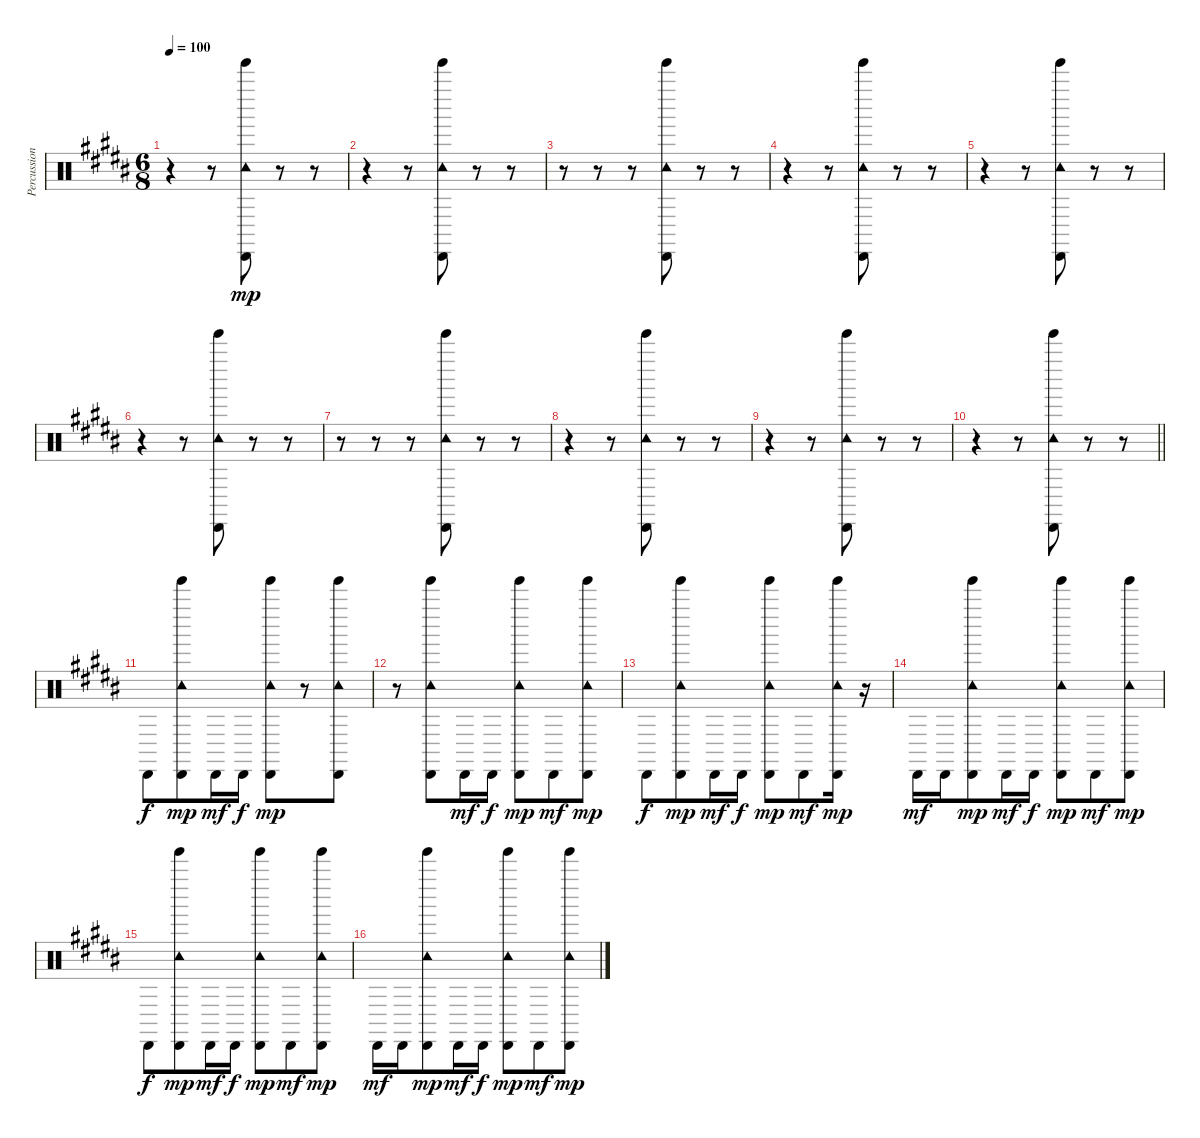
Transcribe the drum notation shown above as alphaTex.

\track ("Percussion" "Percussion") {instrument percussion}
\staff {score}
\articulation defaults
\ts (6 8)
\tempo 100
\clef neutral
\ks b
r.4{dy mp} r.8 ("Tambourine (hit)" "Cabasa (hit)" "Tinkle Bell (hit)").8 r.8 r.8 |
r.4 r.8 ("Tambourine (hit)" "Cabasa (hit)" "Tinkle Bell (hit)").8 r.8 r.8 |
r.8 r.8 r.8 ("Tambourine (hit)" "Cabasa (hit)" "Tinkle Bell (hit)").8 r.8 r.8 |
r.4 r.8 ("Tambourine (hit)" "Cabasa (hit)" "Tinkle Bell (hit)").8 r.8 r.8 |
r.4 r.8 ("Tambourine (hit)" "Cabasa (hit)" "Tinkle Bell (hit)").8 r.8 r.8 |
r.4 r.8 ("Tambourine (hit)" "Cabasa (hit)" "Tinkle Bell (hit)").8 r.8 r.8 |
r.8 r.8 r.8 ("Tambourine (hit)" "Cabasa (hit)" "Tinkle Bell (hit)").8 r.8 r.8 |
r.4 r.8 ("Tambourine (hit)" "Cabasa (hit)" "Tinkle Bell (hit)").8 r.8 r.8 |
r.4 r.8 ("Tambourine (hit)" "Cabasa (hit)" "Tinkle Bell (hit)").8 r.8 r.8 |
\barLineRight lightlight
r.4 r.8 ("Tambourine (hit)" "Cabasa (hit)" "Tinkle Bell (hit)").8 r.8 r.8 |
"Cabasa (hit)".8{dy f} ("Tinkle Bell (hit)" "Tambourine (hit)" "Cabasa (hit)").8{dy mp} "Cabasa (hit)".16{dy mf} "Cabasa (hit)".16{dy f} ("Tinkle Bell (hit)" "Tambourine (hit)" "Cabasa (hit)").8{dy mp} r.8 ("Tinkle Bell (hit)" "Tambourine (hit)" "Cabasa (hit)").8 |
r.8 ("Tinkle Bell (hit)" "Tambourine (hit)" "Cabasa (hit)").8 "Cabasa (hit)".16{dy mf} "Cabasa (hit)".16{dy f} ("Tinkle Bell (hit)" "Tambourine (hit)" "Cabasa (hit)").8{dy mp} "Cabasa (hit)".8{dy mf} ("Tinkle Bell (hit)" "Tambourine (hit)" "Cabasa (hit)").8{dy mp} |
"Cabasa (hit)".8{dy f} ("Tinkle Bell (hit)" "Tambourine (hit)" "Cabasa (hit)").8{dy mp} "Cabasa (hit)".16{dy mf} "Cabasa (hit)".16{dy f} ("Tinkle Bell (hit)" "Tambourine (hit)" "Cabasa (hit)").8{dy mp} "Cabasa (hit)".8{dy mf} ("Tinkle Bell (hit)" "Tambourine (hit)" "Cabasa (hit)").16{dy mp} r.16 |
"Cabasa (hit)".16{dy mf} "Cabasa (hit)".16 ("Tinkle Bell (hit)" "Tambourine (hit)" "Cabasa (hit)").8{dy mp} "Cabasa (hit)".16{dy mf} "Cabasa (hit)".16{dy f} ("Tinkle Bell (hit)" "Tambourine (hit)" "Cabasa (hit)").8{dy mp} "Cabasa (hit)".8{dy mf} ("Tinkle Bell (hit)" "Tambourine (hit)" "Cabasa (hit)").8{dy mp} |
"Cabasa (hit)".8{dy f} ("Tinkle Bell (hit)" "Tambourine (hit)" "Cabasa (hit)").8{dy mp} "Cabasa (hit)".16{dy mf} "Cabasa (hit)".16{dy f} ("Tinkle Bell (hit)" "Tambourine (hit)" "Cabasa (hit)").8{dy mp} "Cabasa (hit)".8{dy mf} ("Tinkle Bell (hit)" "Tambourine (hit)" "Cabasa (hit)").8{dy mp} |
"Cabasa (hit)".16{dy mf} "Cabasa (hit)".16 ("Tinkle Bell (hit)" "Tambourine (hit)" "Cabasa (hit)").8{dy mp} "Cabasa (hit)".16{dy mf} "Cabasa (hit)".16{dy f} ("Tinkle Bell (hit)" "Tambourine (hit)" "Cabasa (hit)").8{dy mp} "Cabasa (hit)".8{dy mf} ("Tinkle Bell (hit)" "Tambourine (hit)" "Cabasa (hit)").8{dy mp}
